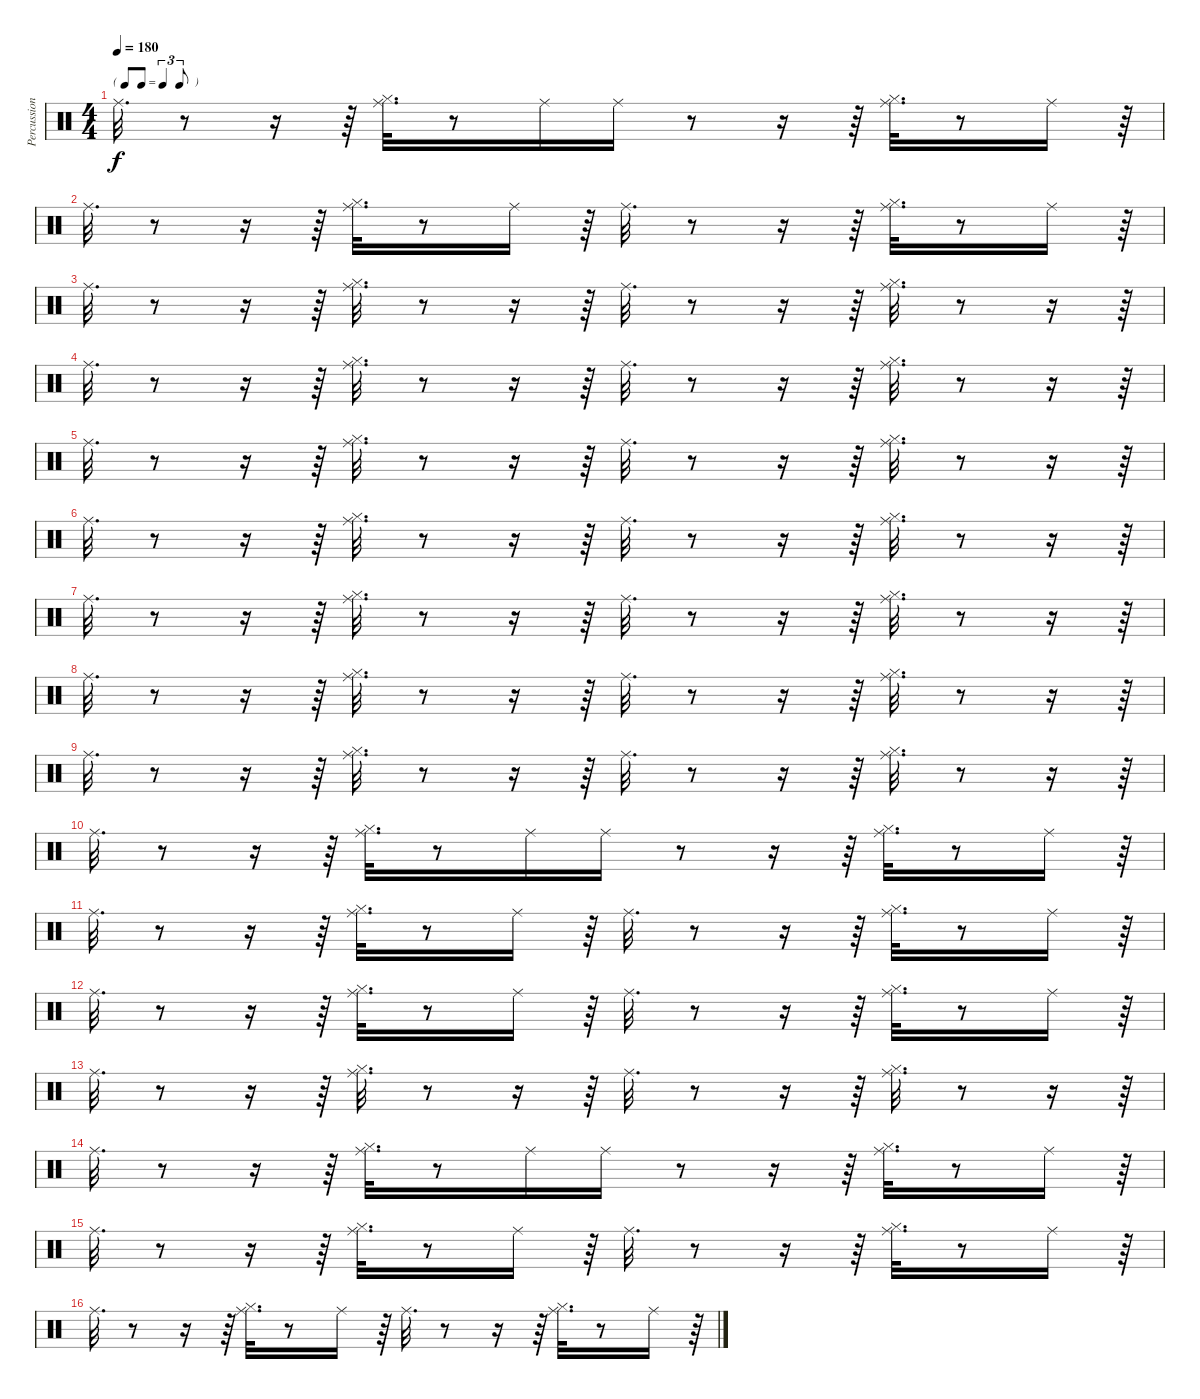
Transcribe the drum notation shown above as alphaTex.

\track ("Percussions" "Percussion") {instrument percussion}
\staff {score}
\articulation defaults
\ts (4 4)
\tf triplet8th
\tempo 180
\clef neutral
\ks c "Ride (middle)".32{d dy f}
r.8 r.16 r.64 ("Hi-Hat (closed)" "Ride (middle)").32{d} r.8 "Ride (middle)".16 "Ride (middle)".16 r.8 r.16 r.64 ("Hi-Hat (closed)" "Ride (middle)").32{d} r.8 "Ride (middle)".16 r.64 |
"Ride (middle)".32{d} r.8 r.16 r.64 ("Hi-Hat (closed)" "Ride (middle)").32{d} r.8 "Ride (middle)".16 r.64 "Ride (middle)".32{d} r.8 r.16 r.64 ("Hi-Hat (closed)" "Ride (middle)").32{d} r.8 "Ride (middle)".16 r.64 |
"Ride (middle)".32{d} r.8 r.16 r.64 ("Hi-Hat (closed)" "Ride (middle)").32{d} r.8 r.16 r.64 "Ride (middle)".32{d} r.8 r.16 r.64 ("Hi-Hat (closed)" "Ride (middle)").32{d} r.8 r.16 r.64 |
"Ride (middle)".32{d} r.8 r.16 r.64 ("Hi-Hat (closed)" "Ride (middle)").32{d} r.8 r.16 r.64 "Ride (middle)".32{d} r.8 r.16 r.64 ("Hi-Hat (closed)" "Ride (middle)").32{d} r.8 r.16 r.64 |
"Ride (middle)".32{d} r.8 r.16 r.64 ("Hi-Hat (closed)" "Ride (middle)").32{d} r.8 r.16 r.64 "Ride (middle)".32{d} r.8 r.16 r.64 ("Hi-Hat (closed)" "Ride (middle)").32{d} r.8 r.16 r.64 |
"Ride (middle)".32{d} r.8 r.16 r.64 ("Hi-Hat (closed)" "Ride (middle)").32{d} r.8 r.16 r.64 "Ride (middle)".32{d} r.8 r.16 r.64 ("Hi-Hat (closed)" "Ride (middle)").32{d} r.8 r.16 r.64 |
"Ride (middle)".32{d} r.8 r.16 r.64 ("Hi-Hat (closed)" "Ride (middle)").32{d} r.8 r.16 r.64 "Ride (middle)".32{d} r.8 r.16 r.64 ("Hi-Hat (closed)" "Ride (middle)").32{d} r.8 r.16 r.64 |
"Ride (middle)".32{d} r.8 r.16 r.64 ("Hi-Hat (closed)" "Ride (middle)").32{d} r.8 r.16 r.64 "Ride (middle)".32{d} r.8 r.16 r.64 ("Hi-Hat (closed)" "Ride (middle)").32{d} r.8 r.16 r.64 |
"Ride (middle)".32{d} r.8 r.16 r.64 ("Hi-Hat (closed)" "Ride (middle)").32{d} r.8 r.16 r.64 "Ride (middle)".32{d} r.8 r.16 r.64 ("Hi-Hat (closed)" "Ride (middle)").32{d} r.8 r.16 r.64 |
"Ride (middle)".32{d} r.8 r.16 r.64 ("Hi-Hat (closed)" "Ride (middle)").32{d} r.8 "Ride (middle)".16 "Ride (middle)".16 r.8 r.16 r.64 ("Hi-Hat (closed)" "Ride (middle)").32{d} r.8 "Ride (middle)".16 r.64 |
"Ride (middle)".32{d} r.8 r.16 r.64 ("Hi-Hat (closed)" "Ride (middle)").32{d} r.8 "Ride (middle)".16 r.64 "Ride (middle)".32{d} r.8 r.16 r.64 ("Hi-Hat (closed)" "Ride (middle)").32{d} r.8 "Ride (middle)".16 r.64 |
"Ride (middle)".32{d} r.8 r.16 r.64 ("Hi-Hat (closed)" "Ride (middle)").32{d} r.8 "Ride (middle)".16 r.64 "Ride (middle)".32{d} r.8 r.16 r.64 ("Hi-Hat (closed)" "Ride (middle)").32{d} r.8 "Ride (middle)".16 r.64 |
"Ride (middle)".32{d} r.8 r.16 r.64 ("Hi-Hat (closed)" "Ride (middle)").32{d} r.8 r.16 r.64 "Ride (middle)".32{d} r.8 r.16 r.64 ("Hi-Hat (closed)" "Ride (middle)").32{d} r.8 r.16 r.64 |
"Ride (middle)".32{d} r.8 r.16 r.64 ("Hi-Hat (closed)" "Ride (middle)").32{d} r.8 "Ride (middle)".16 "Ride (middle)".16 r.8 r.16 r.64 ("Hi-Hat (closed)" "Ride (middle)").32{d} r.8 "Ride (middle)".16 r.64 |
"Ride (middle)".32{d} r.8 r.16 r.64 ("Hi-Hat (closed)" "Ride (middle)").32{d} r.8 "Ride (middle)".16 r.64 "Ride (middle)".32{d} r.8 r.16 r.64 ("Hi-Hat (closed)" "Ride (middle)").32{d} r.8 "Ride (middle)".16 r.64 |
"Ride (middle)".32{d} r.8 r.16 r.64 ("Hi-Hat (closed)" "Ride (middle)").32{d} r.8 "Ride (middle)".16 r.64 "Ride (middle)".32{d} r.8 r.16 r.64 ("Hi-Hat (closed)" "Ride (middle)").32{d} r.8 "Ride (middle)".16 r.64
